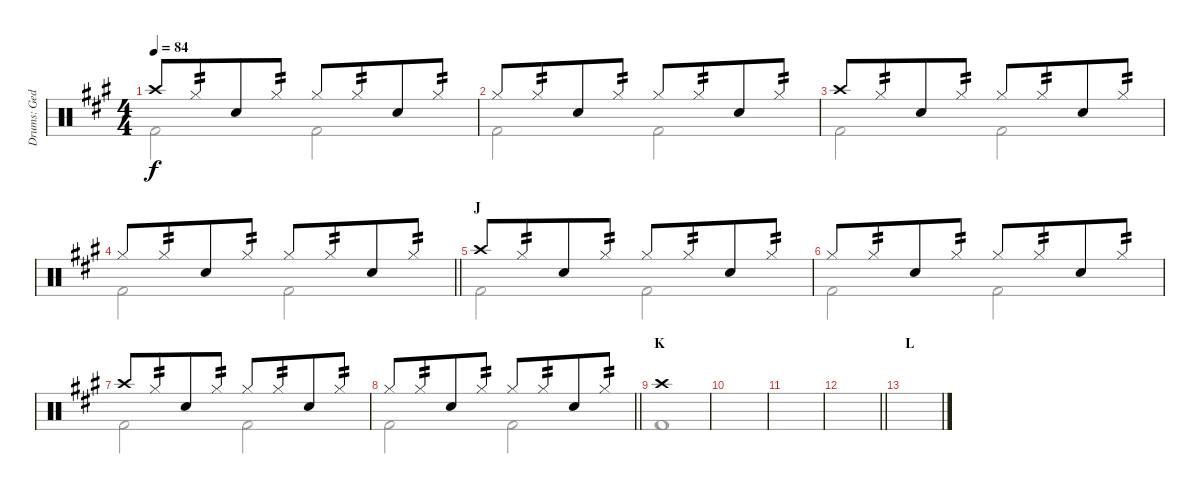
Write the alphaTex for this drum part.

\track ("Drums: Ged Lynch" "Drums: Ged") {instrument percussion}
\staff {score}
\articulation defaults
\voice
\ts (4 4)
\tempo 84
\clef neutral
\ks a "Crash high (hit)".8{dy f} "Hi-Hat (closed)".8{tp 2 beam merge} "Electric Snare (hit)".8 "Hi-Hat (closed)".8{tp 2} "Hi-Hat (closed)".8 "Hi-Hat (closed)".8{tp 2 beam merge} "Electric Snare (hit)".8 "Hi-Hat (closed)".8{tp 2}
|
"Hi-Hat (closed)".8 "Hi-Hat (closed)".8{tp 2 beam merge} "Electric Snare (hit)".8 "Hi-Hat (closed)".8{tp 2} "Hi-Hat (closed)".8 "Hi-Hat (closed)".8{tp 2 beam merge} "Electric Snare (hit)".8 "Hi-Hat (closed)".8{tp 2} |
"Crash high (hit)".8 "Hi-Hat (closed)".8{tp 2 beam merge} "Electric Snare (hit)".8 "Hi-Hat (closed)".8{tp 2} "Hi-Hat (closed)".8 "Hi-Hat (closed)".8{tp 2 beam merge} "Electric Snare (hit)".8 "Hi-Hat (closed)".8{tp 2} |
\barLineRight lightlight "Hi-Hat (closed)".8 "Hi-Hat (closed)".8{tp 2 beam merge} "Electric Snare (hit)".8 "Hi-Hat (closed)".8{tp 2} "Hi-Hat (closed)".8 "Hi-Hat (closed)".8{tp 2 beam merge} "Electric Snare (hit)".8 "Hi-Hat (closed)".8{tp 2}
|
\section ("" "J")
"Crash high (hit)".8 "Hi-Hat (closed)".8{tp 2 beam merge} "Electric Snare (hit)".8 "Hi-Hat (closed)".8{tp 2} "Hi-Hat (closed)".8 "Hi-Hat (closed)".8{tp 2 beam merge} "Electric Snare (hit)".8 "Hi-Hat (closed)".8{tp 2} |
"Hi-Hat (closed)".8 "Hi-Hat (closed)".8{tp 2 beam merge} "Electric Snare (hit)".8 "Hi-Hat (closed)".8{tp 2} "Hi-Hat (closed)".8 "Hi-Hat (closed)".8{tp 2 beam merge} "Electric Snare (hit)".8 "Hi-Hat (closed)".8{tp 2} |
"Crash high (hit)".8 "Hi-Hat (closed)".8{tp 2 beam merge} "Electric Snare (hit)".8 "Hi-Hat (closed)".8{tp 2} "Hi-Hat (closed)".8 "Hi-Hat (closed)".8{tp 2 beam merge} "Electric Snare (hit)".8 "Hi-Hat (closed)".8{tp 2} |
\barLineRight lightlight "Hi-Hat (closed)".8 "Hi-Hat (closed)".8{tp 2 beam merge} "Electric Snare (hit)".8 "Hi-Hat (closed)".8{tp 2} "Hi-Hat (closed)".8 "Hi-Hat (closed)".8{tp 2 beam merge} "Electric Snare (hit)".8 "Hi-Hat (closed)".8{tp 2}
|
\section ("" "K")
"Crash high (hit)".1 |
|
|
\barLineRight lightlight
|
\section ("" "L")
|
|
|
\voice
\clef neutral
\ottava regular
\simile none
\ks a "Kick (hit) 2".2{dy f} "Kick (hit) 2".2
|
"Kick (hit) 2".2 "Kick (hit) 2".2 |
"Kick (hit) 2".2 "Kick (hit) 2".2 |
\barLineRight lightlight "Kick (hit) 2".2 "Kick (hit) 2".2
|
"Kick (hit) 2".2 "Kick (hit) 2".2 |
"Kick (hit) 2".2 "Kick (hit) 2".2 |
"Kick (hit) 2".2 "Kick (hit) 2".2 |
\barLineRight lightlight "Kick (hit) 2".2 "Kick (hit) 2".2
|
"Kick (hit) 2".1 |
|
|
\barLineRight lightlight
|
|
|
|
